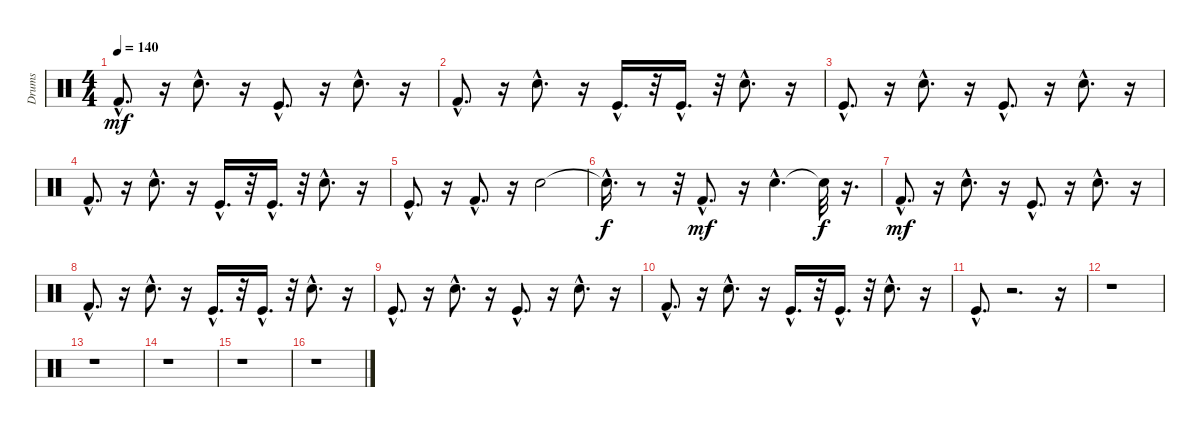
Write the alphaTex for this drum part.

\track ("Drums" "Drums") {instrument percussion}
\staff {score}
\articulation defaults
\ts (4 4)
\tempo 140
\clef neutral
\ks c "Kick (hit) 2"{hac}.8{d dy mf}
r.16 "Snare (hit) 2"{hac}.8{d} r.16 "Kick (hit)"{hac}.8{d} r.16 "Snare (hit) 2"{hac}.8{d} r.16 |
"Kick (hit) 2"{hac}.8{d} r.16 "Snare (hit) 2"{hac}.8{d} r.16 "Kick (hit)"{hac}.16{d} r.32 "Kick (hit)"{hac}.16{d} r.32 "Snare (hit) 2"{hac}.8{d} r.16 |
"Kick (hit)"{hac}.8{d} r.16 "Snare (hit) 2"{hac}.8{d} r.16 "Kick (hit)"{hac}.8{d} r.16 "Snare (hit) 2"{hac}.8{d} r.16 |
"Kick (hit) 2"{hac}.8{d} r.16 "Snare (hit) 2"{hac}.8{d} r.16 "Kick (hit)"{hac}.16{d} r.32 "Kick (hit)"{hac}.16{d} r.32 "Snare (hit) 2"{hac}.8{d} r.16 |
"Kick (hit)"{hac}.8{d} r.16 "Kick (hit) 2"{hac}.8{d} r.16 "Snare (hit) 2".2 |
"Snare (hit)"{hac t}.16{d dy f} r.8 r.32 "Kick (hit) 2"{hac}.8{d dy mf} r.16 "Snare (hit) 2"{hac}.4{d} "Snare (hit)"{t}.32{dy f} r.16{d} |
"Kick (hit) 2"{hac}.8{d dy mf} r.16 "Snare (hit) 2"{hac}.8{d} r.16 "Kick (hit)"{hac}.8{d} r.16 "Snare (hit) 2"{hac}.8{d} r.16 |
"Kick (hit) 2"{hac}.8{d} r.16 "Snare (hit) 2"{hac}.8{d} r.16 "Kick (hit)"{hac}.16{d} r.32 "Kick (hit)"{hac}.16{d} r.32 "Snare (hit) 2"{hac}.8{d} r.16 |
"Kick (hit)"{hac}.8{d} r.16 "Snare (hit) 2"{hac}.8{d} r.16 "Kick (hit)"{hac}.8{d} r.16 "Snare (hit) 2"{hac}.8{d} r.16 |
"Kick (hit) 2"{hac}.8{d} r.16 "Snare (hit) 2"{hac}.8{d} r.16 "Kick (hit)"{hac}.16{d} r.32 "Kick (hit)"{hac}.16{d} r.32 "Snare (hit) 2"{hac}.8{d} r.16 |
"Kick (hit)"{hac}.8{d} r.2{d} r.16 |
r.1 |
r.1 |
r.1 |
r.1 |
r.1
